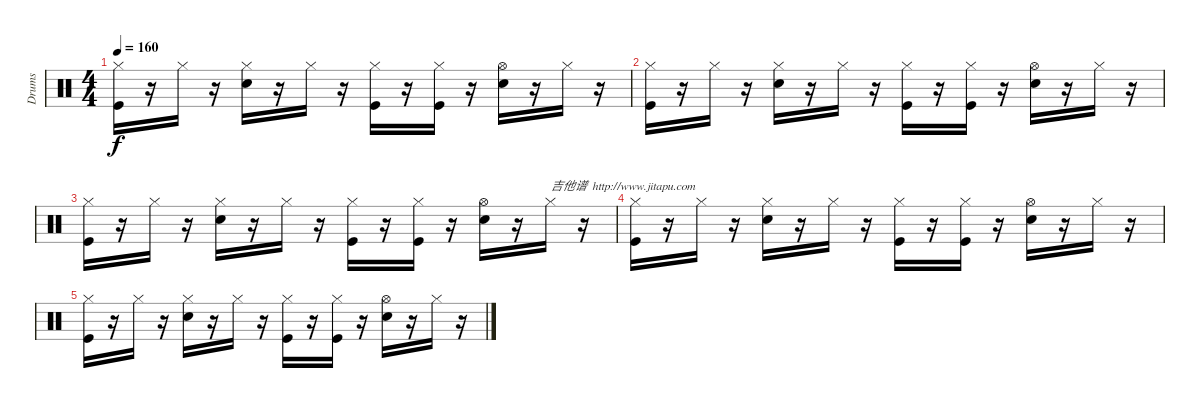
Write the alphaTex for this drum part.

\track ("Drums" "Drums") {instrument percussion}
\staff {score}
\articulation defaults
\ts (4 4)
\tempo 160
\clef neutral
\ks c
("Hi-Hat (closed)" "Kick (hit)").16{dy f} r.16 "Hi-Hat (closed)".16 r.16 ("Hi-Hat (closed)" "Snare (hit) 2").16 r.16 "Hi-Hat (closed)".16 r.16 ("Hi-Hat (closed)" "Kick (hit)").16 r.16 ("Kick (hit)" "Hi-Hat (closed)").16 r.16 ("Hi-Hat (open)" "Snare (hit) 2").16 r.16 "Hi-Hat (closed)".16 r.16 |
("Hi-Hat (closed)" "Kick (hit)").16 r.16 "Hi-Hat (closed)".16 r.16 ("Hi-Hat (closed)" "Snare (hit) 2").16 r.16 "Hi-Hat (closed)".16 r.16 ("Hi-Hat (closed)" "Kick (hit)").16 r.16 ("Kick (hit)" "Hi-Hat (closed)").16 r.16 ("Hi-Hat (open)" "Snare (hit) 2").16 r.16 "Hi-Hat (closed)".16 r.16 |
("Hi-Hat (closed)" "Kick (hit)").16 r.16 "Hi-Hat (closed)".16 r.16 ("Hi-Hat (closed)" "Snare (hit) 2").16 r.16 "Hi-Hat (closed)".16 r.16 ("Hi-Hat (closed)" "Kick (hit)").16 r.16 ("Kick (hit)" "Hi-Hat (closed)").16 r.16 ("Hi-Hat (open)" "Snare (hit) 2").16 r.16 "Hi-Hat (closed)".16{txt "吉他谱  http://www.jitapu.com"} r.16 |
("Hi-Hat (closed)" "Kick (hit)").16 r.16 "Hi-Hat (closed)".16 r.16 ("Hi-Hat (closed)" "Snare (hit) 2").16 r.16 "Hi-Hat (closed)".16 r.16 ("Hi-Hat (closed)" "Kick (hit)").16 r.16 ("Kick (hit)" "Hi-Hat (closed)").16 r.16 ("Hi-Hat (open)" "Snare (hit) 2").16 r.16 "Hi-Hat (closed)".16 r.16 |
("Hi-Hat (closed)" "Kick (hit)").16 r.16 "Hi-Hat (closed)".16 r.16 ("Hi-Hat (closed)" "Snare (hit) 2").16 r.16 "Hi-Hat (closed)".16 r.16 ("Hi-Hat (closed)" "Kick (hit)").16 r.16 ("Kick (hit)" "Hi-Hat (closed)").16 r.16 ("Hi-Hat (open)" "Snare (hit) 2").16 r.16 "Hi-Hat (closed)".16 r.16
